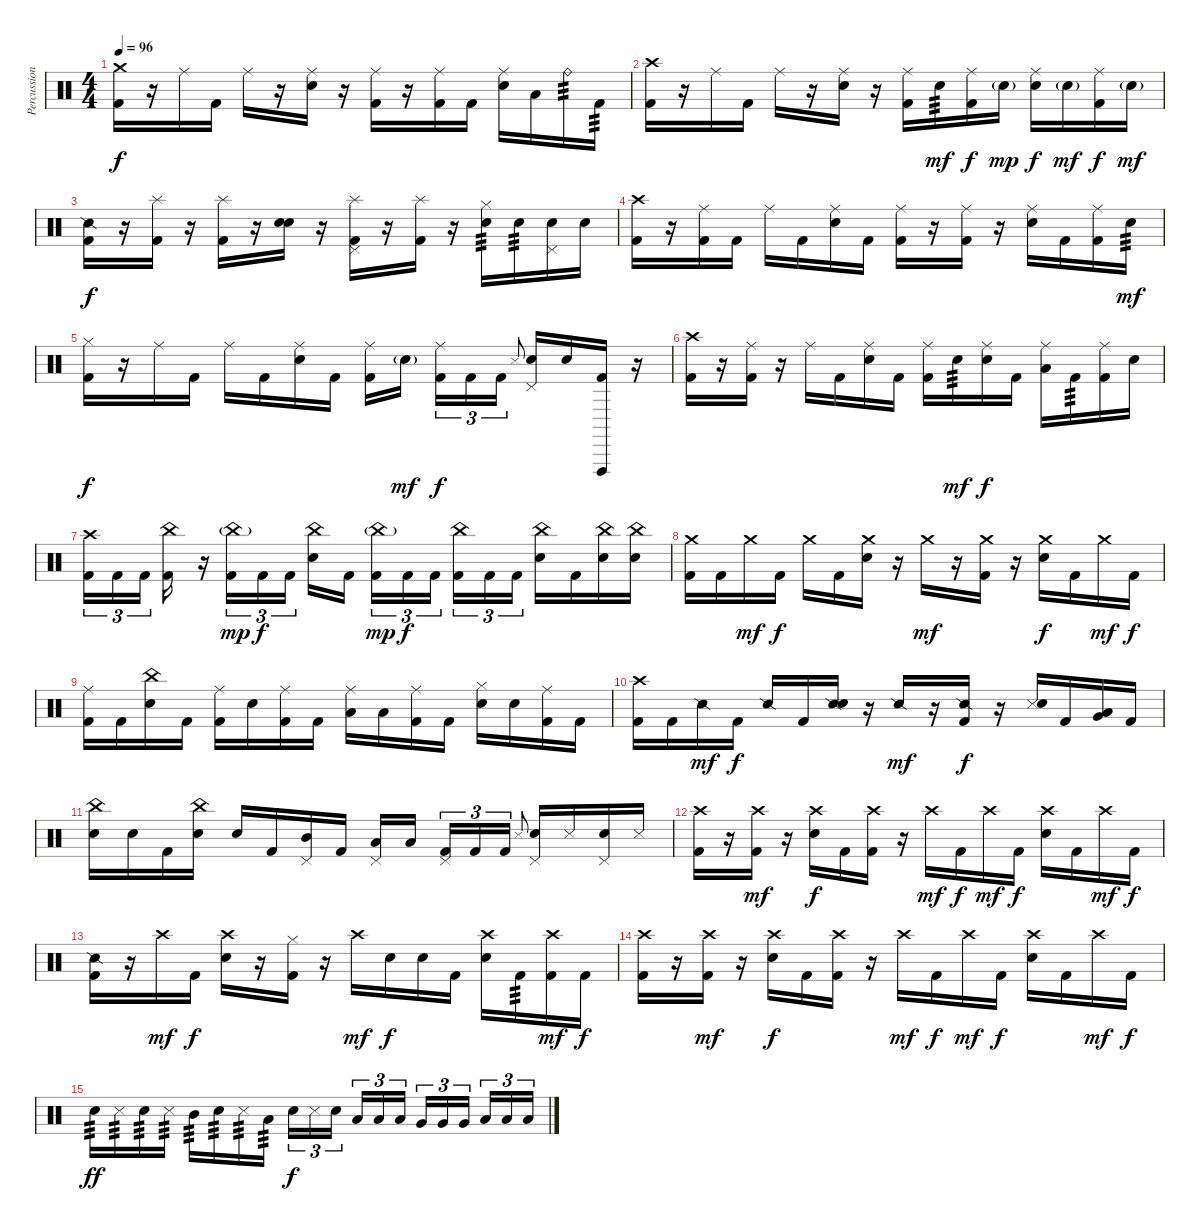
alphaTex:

\track ("Percussion" "Percussion") {instrument percussion}
\staff {score}
\articulation defaults
\ts (4 4)
\tempo 96
\clef neutral
\ks c
("Crash medium (hit)" "Kick (hit) 2").16{dy f} r.16 "Ride (middle)".16 "Kick (hit) 2".16 "Ride (middle)".16 r.16 ("Ride (middle)" "Snare (hit) 2").16 r.16 ("Ride (middle)" "Kick (hit) 2").16 r.16 ("Ride (middle)" "Kick (hit) 2").16 "Kick (hit) 2".16 ("Ride (middle)" "Snare (hit) 2").16 "Low Tom (hit)".16 "Ride (bell)".16{tp 3} "Kick (hit) 2".16{tp 3} |
("Crash high (hit)" "Kick (hit) 2").16 r.16 "Ride (middle)".16 "Kick (hit) 2".16 "Ride (middle)".16 r.16 ("Ride (middle)" "Snare (hit) 2").16 r.16 ("Ride (middle)" "Kick (hit) 2").16 "Snare (hit) 2".16{tp 3 dy mf} ("Ride (middle)" "Kick (hit) 2").16{dy f} "Snare (hit) 2"{g}.16{dy mp} ("Ride (middle)" "Snare (hit) 2").16{dy f} "Snare (hit) 2"{g}.16{dy mf} ("Ride (middle)" "Kick (hit) 2").16{dy f} "Snare (hit) 2"{g}.16{dy mf} |
("Snare (side stick) 2" "Kick (hit) 2").16{dy f} r.16 ("Splash (hit)" "Kick (hit) 2").16 r.16 ("Splash (hit)" "Kick (hit) 2").16 r.16 ("Snare (hit)" "Snare (hit) 2").16 r.16 ("Splash (hit)" "Pedal Hi-Hat (hit)" "Kick (hit) 2").16 r.16 ("Splash (hit)" "Kick (hit) 2").16 r.16 ("Hi-Hat (closed)" "Snare (hit) 2").16{tp 3} "Snare (hit) 2".16{tp 3} ("Pedal Hi-Hat (hit)" "Snare (hit) 2").16 "Snare (hit) 2".16 |
("Crash high (hit)" "Kick (hit) 2").16 r.16 ("Ride (middle)" "Kick (hit) 2").16 "Kick (hit) 2".16 "Ride (middle)".16 "Kick (hit) 2".16 ("Ride (middle)" "Snare (hit) 2").16 "Kick (hit) 2".16 ("Ride (middle)" "Kick (hit) 2").16 r.16 ("Ride (middle)" "Kick (hit) 2").16 r.16 ("Ride (middle)" "Snare (hit) 2").16 "Kick (hit) 2".16 ("Ride (middle)" "Kick (hit) 2").16 "Snare (hit) 2".16{tp 3 dy mf} |
("Hi-Hat (closed)" "Kick (hit) 2").16{dy f} r.16 "Ride (middle)".16 "Kick (hit) 2".16 "Ride (middle)".16 "Kick (hit) 2".16 ("Ride (middle)" "Snare (hit) 2").16 "Kick (hit) 2".16 ("Ride (middle)" "Kick (hit) 2").16 "Snare (hit) 2"{g}.16{dy mf beam splitsecondary} ("Ride (middle)" "Kick (hit) 2").16{tu (3 2) dy f} "Kick (hit) 2".16{tu (3 2)} "Kick (hit) 2".16{tu (3 2)} "Metronome (hit)".8{gr onbeat} ("Pedal Hi-Hat (hit)" "Snare (hit) 2").16 "Snare (hit) 2".16 ("Vibraslap (hit)" "Kick (hit) 2").16 r.16 |
("Crash high (hit)" "Kick (hit) 2").16 r.16 ("Ride (middle)" "Kick (hit) 2").16 r.16 "Ride (middle)".16 "Kick (hit) 2".16 ("Ride (middle)" "Snare (hit) 2").16 "Kick (hit) 2".16 ("Ride (middle)" "Kick (hit) 2").16 "Snare (hit) 2".16{tp 3 dy mf} ("Ride (middle)" "Snare (hit) 2").16{dy f} "Kick (hit) 2".16 ("Ride (middle)" "Low Tom (hit)").16 "Kick (hit) 2".16{tp 3} ("Ride (middle)" "Kick (hit) 2").16 "Snare (hit) 2".16 |
("Crash high (hit)" "Kick (hit) 2").16{tu (3 2)} "Kick (hit) 2".16{tu (3 2)} "Kick (hit) 2".16{tu (3 2) beam splitsecondary} ("China (hit)" "Kick (hit) 2").16 r.16 ("China (hit)"{g} "Kick (hit) 2").16{tu (3 2) dy mp} "Kick (hit) 2".16{tu (3 2) dy f} "Kick (hit) 2".16{tu (3 2) beam splitsecondary} ("China (hit)" "Snare (hit) 2").16 "Kick (hit) 2".16 ("China (hit)"{g} "Kick (hit) 2").16{tu (3 2) dy mp} "Kick (hit) 2".16{tu (3 2) dy f} "Kick (hit) 2".16{tu (3 2) beam splitsecondary} ("China (hit)" "Kick (hit) 2").16{tu (3 2)} "Kick (hit) 2".16{tu (3 2)} "Kick (hit) 2".16{tu (3 2)} ("China (hit)" "Snare (hit) 2").16 "Kick (hit) 2".16 ("China (hit)" "Snare (hit) 2").16 ("China (hit)" "Snare (hit) 2").16 |
("Crash medium (hit)" "Kick (hit) 2").16 "Kick (hit) 2".16 "Crash medium (hit)".16{dy mf} "Kick (hit) 2".16{dy f} "Crash medium (hit)".16 "Kick (hit) 2".16 ("Crash medium (hit)" "Snare (hit) 2").16 r.16 "Crash medium (hit)".16{dy mf} r.16 ("Crash medium (hit)" "Kick (hit) 2").16 r.16 ("Crash medium (hit)" "Snare (hit) 2").16{dy f} "Kick (hit) 2".16 "Crash medium (hit)".16{dy mf} "Kick (hit) 2".16{dy f} |
("Ride (middle)" "Kick (hit) 2").16 "Kick (hit) 2".16 ("China (hit)" "Snare (hit) 2").16 "Kick (hit) 2".16 ("Ride (middle)" "Kick (hit) 2").16 "Snare (hit) 2".16 ("Ride (middle)" "Kick (hit) 2").16 "Kick (hit) 2".16 ("Ride (middle)" "Low Tom (hit)").16 "Low Tom (hit)".16 ("Ride (middle)" "Kick (hit) 2").16 "Kick (hit) 2".16 ("Hi-Hat (closed)" "Snare (hit) 2").16 "Snare (hit) 2".16 ("Ride (middle)" "Kick (hit) 2").16 "Kick (hit) 2".16 |
("Crash high (hit)" "Kick (hit) 2").16 "Kick (hit) 2".16 "Snare (side stick) 2".16{dy mf} "Kick (hit) 2".16{dy f} "Snare (side stick) 2".16 "Kick (hit) 2".16 ("Snare (side stick) 2" "Snare (hit) 2").16 r.16 "Snare (side stick) 2".16{dy mf} r.16 ("Snare (side stick) 2" "Kick (hit) 2").16{dy f} r.16 ("Metronome (hit)" "Snare (hit) 2").16{bu 60} "Kick (hit) 2".16 ("Low Tom (hit)" "Very Low Tom (hit)").16{bu 60} "Kick (hit) 2".16 |
("China (hit)" "Snare (hit) 2").16 "Snare (hit) 2".16 "Kick (hit) 2".16 ("China (hit)" "Snare (hit) 2").16 "Snare (hit) 2".16 "Kick (hit) 2".16 ("Pedal Hi-Hat (hit)" "Mid Tom (hit)").16 "Kick (hit) 2".16 ("Pedal Hi-Hat (hit)" "Low Tom (hit)").16 "Low Tom (hit)".16{beam splitsecondary} ("Pedal Hi-Hat (hit)" "Kick (hit) 2").16{tu (3 2)} "Kick (hit) 2".16{tu (3 2)} "Kick (hit) 2".16{tu (3 2)} "Metronome (hit)".8{gr onbeat} ("Pedal Hi-Hat (hit)" "Snare (hit) 2").16 "Metronome (hit)".16 ("Pedal Hi-Hat (hit)" "Snare (hit) 2").16 "Metronome (hit)".16 |
("Crash high (hit)" "Kick (hit) 2").16 r.16 ("Crash high (hit)" "Kick (hit) 2").16{dy mf} r.16 ("Crash high (hit)" "Snare (hit) 2").16{dy f} "Kick (hit) 2".16 ("Crash high (hit)" "Kick (hit) 2").16 r.16 "Crash high (hit)".16{dy mf} "Kick (hit) 2".16{dy f} "Crash high (hit)".16{dy mf} "Kick (hit) 2".16{dy f} ("Crash high (hit)" "Snare (hit) 2").16 "Kick (hit) 2".16 "Crash high (hit)".16{dy mf} "Kick (hit) 2".16{dy f} |
("Snare (side stick) 2" "Kick (hit) 2").16 r.16 "Crash high (hit)".16{dy mf} "Kick (hit) 2".16{dy f} ("Crash high (hit)" "Snare (hit) 2").16 r.16 ("Hi-Hat (closed)" "Kick (hit) 2").16 r.16 "Crash high (hit)".16{dy mf} "Snare (hit) 2".16{dy f} "Snare (hit)".16 "Kick (hit) 2".16 ("Crash high (hit)" "Snare (hit) 2").16 "Kick (hit) 2".16{tp 3} ("Crash high (hit)" "Kick (hit) 2").16{dy mf} "Kick (hit) 2".16{dy f} |
("Crash high (hit)" "Kick (hit) 2").16 r.16 ("Crash high (hit)" "Kick (hit) 2").16{dy mf} r.16 ("Crash high (hit)" "Snare (hit) 2").16{dy f} "Kick (hit) 2".16 ("Crash high (hit)" "Kick (hit) 2").16 r.16 "Crash high (hit)".16{dy mf} "Kick (hit) 2".16{dy f} "Crash high (hit)".16{dy mf} "Kick (hit) 2".16{dy f} ("Crash high (hit)" "Snare (hit) 2").16 "Kick (hit) 2".16 "Crash high (hit)".16{dy mf} "Kick (hit) 2".16{dy f} |
"Snare (hit) 2".16{tp 3 dy ff} "Metronome (hit)".16{tp 3} "Snare (hit) 2".16{tp 3} "Metronome (hit)".16{tp 3} "Mid Tom (hit)".16{tp 3} "Snare (hit) 2".16{tp 3} "Metronome (hit)".16{tp 3} "Low Tom (hit)".16{tp 3} "Snare (hit) 2".16{tu (3 2) dy f} "Metronome (hit)".16{tu (3 2)} "Snare (hit) 2".16{tu (3 2) beam splitsecondary} "Low Tom (hit)".16{tu (3 2)} "Low Tom (hit)".16{tu (3 2)} "Low Tom (hit)".16{tu (3 2)} "Very Low Tom (hit)".16{tu (3 2)} "Very Low Tom (hit)".16{tu (3 2)} "Very Low Tom (hit)".16{tu (3 2) beam splitsecondary} "Low Floor Tom (hit)".16{tu (3 2)} "Low Floor Tom (hit)".16{tu (3 2)} "Low Floor Tom (hit)".16{tu (3 2)}
